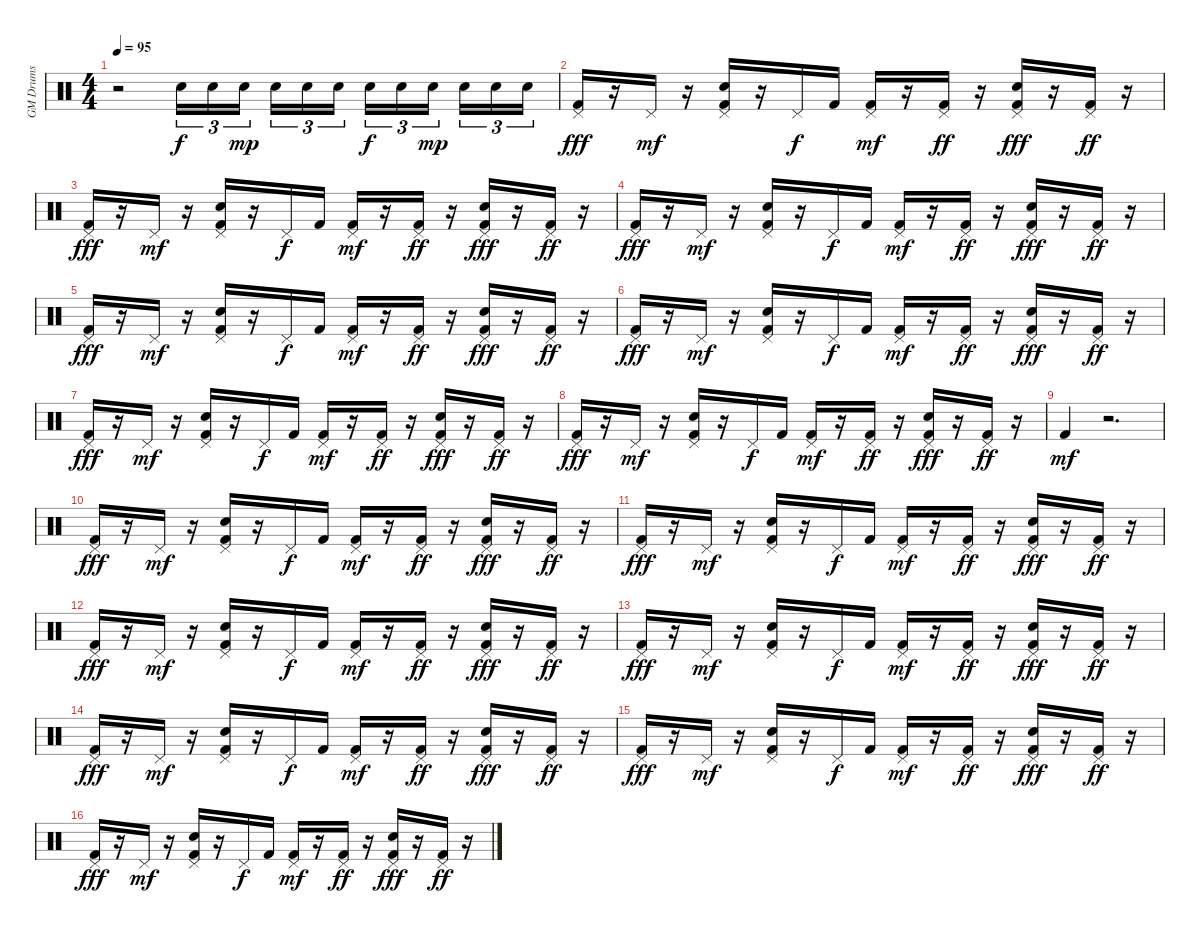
\track ("GM Drums" "GM Drums") {instrument percussion}
\staff {score}
\articulation defaults
\ts (4 4)
\tempo 95
\clef neutral
\ks c
r.2{dy ff} "Electric Snare (hit)".16{tu (3 2) dy f} "Electric Snare (hit)".16{tu (3 2)} "Electric Snare (hit)".16{tu (3 2) dy mp} "Electric Snare (hit)".16{tu (3 2)} "Electric Snare (hit)".16{tu (3 2)} "Electric Snare (hit)".16{tu (3 2)} "Electric Snare (hit)".16{tu (3 2) dy f} "Electric Snare (hit)".16{tu (3 2)} "Electric Snare (hit)".16{tu (3 2) dy mp} "Electric Snare (hit)".16{tu (3 2)} "Electric Snare (hit)".16{tu (3 2)} "Electric Snare (hit)".16{tu (3 2)} |
("Kick (hit) 2" "Pedal Hi-Hat (hit)").16{dy fff} r.16 "Pedal Hi-Hat (hit)".16{dy mf} r.16 ("Kick (hit) 2" "Hand Clap (hit)" "Pedal Hi-Hat (hit)").16 r.16 "Pedal Hi-Hat (hit)".16{dy f} "Kick (hit) 2".16 ("Kick (hit) 2" "Pedal Hi-Hat (hit)").16{dy mf} r.16 ("Kick (hit) 2" "Pedal Hi-Hat (hit)").16{dy ff} r.16 ("Kick (hit) 2" "Hand Clap (hit)" "Pedal Hi-Hat (hit)").16{dy fff} r.16 ("Kick (hit) 2" "Pedal Hi-Hat (hit)").16{dy ff} r.16 |
("Kick (hit) 2" "Pedal Hi-Hat (hit)").16{dy fff} r.16 "Pedal Hi-Hat (hit)".16{dy mf} r.16 ("Kick (hit) 2" "Hand Clap (hit)" "Pedal Hi-Hat (hit)").16 r.16 "Pedal Hi-Hat (hit)".16{dy f} "Kick (hit) 2".16 ("Kick (hit) 2" "Pedal Hi-Hat (hit)").16{dy mf} r.16 ("Kick (hit) 2" "Pedal Hi-Hat (hit)").16{dy ff} r.16 ("Kick (hit) 2" "Hand Clap (hit)" "Pedal Hi-Hat (hit)").16{dy fff} r.16 ("Kick (hit) 2" "Pedal Hi-Hat (hit)").16{dy ff} r.16 |
("Kick (hit) 2" "Pedal Hi-Hat (hit)").16{dy fff} r.16 "Pedal Hi-Hat (hit)".16{dy mf} r.16 ("Kick (hit) 2" "Hand Clap (hit)" "Pedal Hi-Hat (hit)").16 r.16 "Pedal Hi-Hat (hit)".16{dy f} "Kick (hit) 2".16 ("Kick (hit) 2" "Pedal Hi-Hat (hit)").16{dy mf} r.16 ("Kick (hit) 2" "Pedal Hi-Hat (hit)").16{dy ff} r.16 ("Kick (hit) 2" "Hand Clap (hit)" "Pedal Hi-Hat (hit)").16{dy fff} r.16 ("Kick (hit) 2" "Pedal Hi-Hat (hit)").16{dy ff} r.16 |
("Kick (hit) 2" "Pedal Hi-Hat (hit)").16{dy fff} r.16 "Pedal Hi-Hat (hit)".16{dy mf} r.16 ("Kick (hit) 2" "Hand Clap (hit)" "Pedal Hi-Hat (hit)").16 r.16 "Pedal Hi-Hat (hit)".16{dy f} "Kick (hit) 2".16 ("Kick (hit) 2" "Pedal Hi-Hat (hit)").16{dy mf} r.16 ("Kick (hit) 2" "Pedal Hi-Hat (hit)").16{dy ff} r.16 ("Kick (hit) 2" "Hand Clap (hit)" "Pedal Hi-Hat (hit)").16{dy fff} r.16 ("Kick (hit) 2" "Pedal Hi-Hat (hit)").16{dy ff} r.16 |
("Kick (hit) 2" "Pedal Hi-Hat (hit)").16{dy fff} r.16 "Pedal Hi-Hat (hit)".16{dy mf} r.16 ("Kick (hit) 2" "Hand Clap (hit)" "Pedal Hi-Hat (hit)").16 r.16 "Pedal Hi-Hat (hit)".16{dy f} "Kick (hit) 2".16 ("Kick (hit) 2" "Pedal Hi-Hat (hit)").16{dy mf} r.16 ("Kick (hit) 2" "Pedal Hi-Hat (hit)").16{dy ff} r.16 ("Kick (hit) 2" "Hand Clap (hit)" "Pedal Hi-Hat (hit)").16{dy fff} r.16 ("Kick (hit) 2" "Pedal Hi-Hat (hit)").16{dy ff} r.16 |
("Kick (hit) 2" "Pedal Hi-Hat (hit)").16{dy fff} r.16 "Pedal Hi-Hat (hit)".16{dy mf} r.16 ("Kick (hit) 2" "Hand Clap (hit)" "Pedal Hi-Hat (hit)").16 r.16 "Pedal Hi-Hat (hit)".16{dy f} "Kick (hit) 2".16 ("Kick (hit) 2" "Pedal Hi-Hat (hit)").16{dy mf} r.16 ("Kick (hit) 2" "Pedal Hi-Hat (hit)").16{dy ff} r.16 ("Kick (hit) 2" "Hand Clap (hit)" "Pedal Hi-Hat (hit)").16{dy fff} r.16 ("Kick (hit) 2" "Pedal Hi-Hat (hit)").16{dy ff} r.16 |
("Kick (hit) 2" "Pedal Hi-Hat (hit)").16{dy fff} r.16 "Pedal Hi-Hat (hit)".16{dy mf} r.16 ("Kick (hit) 2" "Hand Clap (hit)" "Pedal Hi-Hat (hit)").16 r.16 "Pedal Hi-Hat (hit)".16{dy f} "Kick (hit) 2".16 ("Kick (hit) 2" "Pedal Hi-Hat (hit)").16{dy mf} r.16 ("Kick (hit) 2" "Pedal Hi-Hat (hit)").16{dy ff} r.16 ("Kick (hit) 2" "Hand Clap (hit)" "Pedal Hi-Hat (hit)").16{dy fff} r.16 ("Kick (hit) 2" "Pedal Hi-Hat (hit)").16{dy ff} r.16 |
"Kick (hit) 2".4{dy mf} r.2{d} |
("Kick (hit) 2" "Pedal Hi-Hat (hit)").16{dy fff} r.16 "Pedal Hi-Hat (hit)".16{dy mf} r.16 ("Kick (hit) 2" "Hand Clap (hit)" "Pedal Hi-Hat (hit)").16 r.16 "Pedal Hi-Hat (hit)".16{dy f} "Kick (hit) 2".16 ("Kick (hit) 2" "Pedal Hi-Hat (hit)").16{dy mf} r.16 ("Kick (hit) 2" "Pedal Hi-Hat (hit)").16{dy ff} r.16 ("Kick (hit) 2" "Hand Clap (hit)" "Pedal Hi-Hat (hit)").16{dy fff} r.16 ("Kick (hit) 2" "Pedal Hi-Hat (hit)").16{dy ff} r.16 |
("Kick (hit) 2" "Pedal Hi-Hat (hit)").16{dy fff} r.16 "Pedal Hi-Hat (hit)".16{dy mf} r.16 ("Kick (hit) 2" "Hand Clap (hit)" "Pedal Hi-Hat (hit)").16 r.16 "Pedal Hi-Hat (hit)".16{dy f} "Kick (hit) 2".16 ("Kick (hit) 2" "Pedal Hi-Hat (hit)").16{dy mf} r.16 ("Kick (hit) 2" "Pedal Hi-Hat (hit)").16{dy ff} r.16 ("Kick (hit) 2" "Hand Clap (hit)" "Pedal Hi-Hat (hit)").16{dy fff} r.16 ("Kick (hit) 2" "Pedal Hi-Hat (hit)").16{dy ff} r.16 |
("Kick (hit) 2" "Pedal Hi-Hat (hit)").16{dy fff} r.16 "Pedal Hi-Hat (hit)".16{dy mf} r.16 ("Kick (hit) 2" "Hand Clap (hit)" "Pedal Hi-Hat (hit)").16 r.16 "Pedal Hi-Hat (hit)".16{dy f} "Kick (hit) 2".16 ("Kick (hit) 2" "Pedal Hi-Hat (hit)").16{dy mf} r.16 ("Kick (hit) 2" "Pedal Hi-Hat (hit)").16{dy ff} r.16 ("Kick (hit) 2" "Hand Clap (hit)" "Pedal Hi-Hat (hit)").16{dy fff} r.16 ("Kick (hit) 2" "Pedal Hi-Hat (hit)").16{dy ff} r.16 |
("Kick (hit) 2" "Pedal Hi-Hat (hit)").16{dy fff} r.16 "Pedal Hi-Hat (hit)".16{dy mf} r.16 ("Kick (hit) 2" "Hand Clap (hit)" "Pedal Hi-Hat (hit)").16 r.16 "Pedal Hi-Hat (hit)".16{dy f} "Kick (hit) 2".16 ("Kick (hit) 2" "Pedal Hi-Hat (hit)").16{dy mf} r.16 ("Kick (hit) 2" "Pedal Hi-Hat (hit)").16{dy ff} r.16 ("Kick (hit) 2" "Hand Clap (hit)" "Pedal Hi-Hat (hit)").16{dy fff} r.16 ("Kick (hit) 2" "Pedal Hi-Hat (hit)").16{dy ff} r.16 |
("Kick (hit) 2" "Pedal Hi-Hat (hit)").16{dy fff} r.16 "Pedal Hi-Hat (hit)".16{dy mf} r.16 ("Kick (hit) 2" "Hand Clap (hit)" "Pedal Hi-Hat (hit)").16 r.16 "Pedal Hi-Hat (hit)".16{dy f} "Kick (hit) 2".16 ("Kick (hit) 2" "Pedal Hi-Hat (hit)").16{dy mf} r.16 ("Kick (hit) 2" "Pedal Hi-Hat (hit)").16{dy ff} r.16 ("Kick (hit) 2" "Hand Clap (hit)" "Pedal Hi-Hat (hit)").16{dy fff} r.16 ("Kick (hit) 2" "Pedal Hi-Hat (hit)").16{dy ff} r.16 |
("Kick (hit) 2" "Pedal Hi-Hat (hit)").16{dy fff} r.16 "Pedal Hi-Hat (hit)".16{dy mf} r.16 ("Kick (hit) 2" "Hand Clap (hit)" "Pedal Hi-Hat (hit)").16 r.16 "Pedal Hi-Hat (hit)".16{dy f} "Kick (hit) 2".16 ("Kick (hit) 2" "Pedal Hi-Hat (hit)").16{dy mf} r.16 ("Kick (hit) 2" "Pedal Hi-Hat (hit)").16{dy ff} r.16 ("Kick (hit) 2" "Hand Clap (hit)" "Pedal Hi-Hat (hit)").16{dy fff} r.16 ("Kick (hit) 2" "Pedal Hi-Hat (hit)").16{dy ff} r.16 |
("Kick (hit) 2" "Pedal Hi-Hat (hit)").16{dy fff} r.16 "Pedal Hi-Hat (hit)".16{dy mf} r.16 ("Kick (hit) 2" "Hand Clap (hit)" "Pedal Hi-Hat (hit)").16 r.16 "Pedal Hi-Hat (hit)".16{dy f} "Kick (hit) 2".16 ("Kick (hit) 2" "Pedal Hi-Hat (hit)").16{dy mf} r.16 ("Kick (hit) 2" "Pedal Hi-Hat (hit)").16{dy ff} r.16 ("Kick (hit) 2" "Hand Clap (hit)" "Pedal Hi-Hat (hit)").16{dy fff} r.16 ("Kick (hit) 2" "Pedal Hi-Hat (hit)").16{dy ff} r.16
